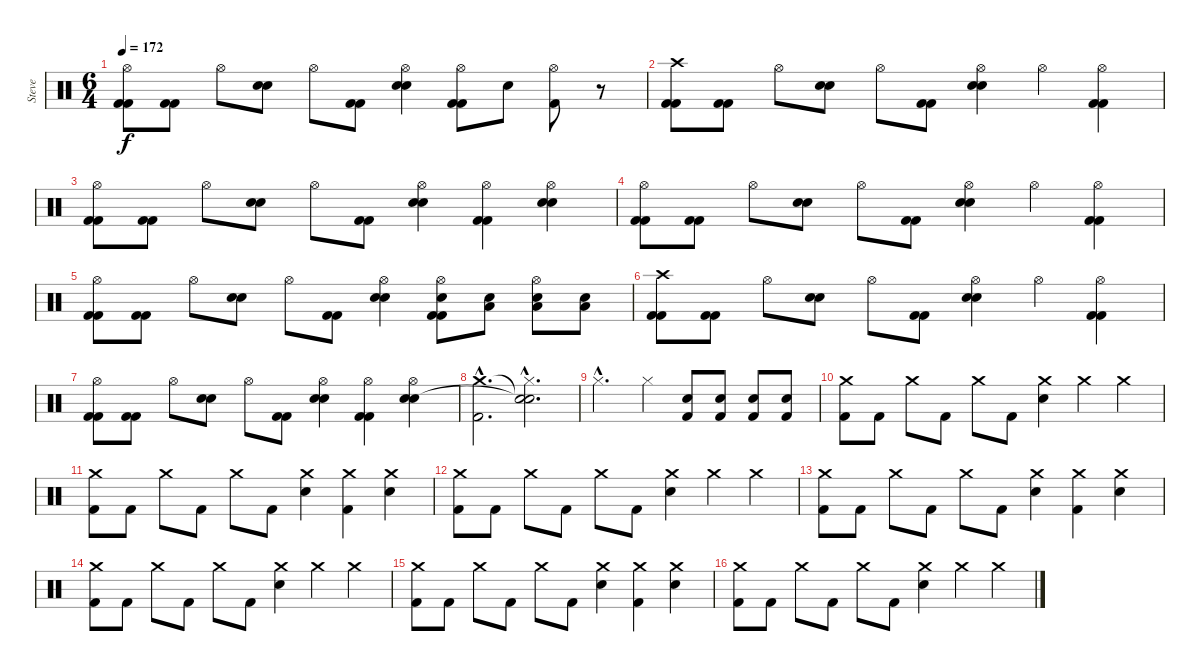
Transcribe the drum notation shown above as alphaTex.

\track ("Steve" "Steve") {instrument percussion}
\staff {score}
\articulation defaults
\ts (6 4)
\tempo 172
\clef neutral
\ks c
("Hi-Hat (open)" "Kick (hit) 2" "Kick (hit) 2").8{dy f} ("Kick (hit) 2" "Kick (hit) 2").8 "Hi-Hat (open)".8 ("Electric Snare (hit)" "Electric Snare (hit)").8 "Hi-Hat (open)".8 ("Kick (hit) 2" "Kick (hit) 2").8 ("Hi-Hat (open)" "Electric Snare (hit)" "Electric Snare (hit)").4 ("Hi-Hat (open)" "Kick (hit) 2" "Kick (hit) 2").8 "Electric Snare (hit)".8 ("Hi-Hat (open)" "Kick (hit) 2").8 r.8 |
("Crash high (hit)" "Kick (hit) 2" "Kick (hit) 2").8 ("Kick (hit) 2" "Kick (hit) 2").8 "Hi-Hat (open)".8 ("Electric Snare (hit)" "Electric Snare (hit)").8 "Hi-Hat (open)".8 ("Kick (hit) 2" "Kick (hit) 2").8 ("Hi-Hat (open)" "Electric Snare (hit)" "Electric Snare (hit)").4 "Hi-Hat (open)".4 ("Hi-Hat (open)" "Kick (hit) 2" "Kick (hit) 2").4 |
("Hi-Hat (open)" "Kick (hit) 2" "Kick (hit) 2").8 ("Kick (hit) 2" "Kick (hit) 2").8 "Hi-Hat (open)".8 ("Electric Snare (hit)" "Electric Snare (hit)").8 "Hi-Hat (open)".8 ("Kick (hit) 2" "Kick (hit) 2").8 ("Hi-Hat (open)" "Electric Snare (hit)" "Electric Snare (hit)").4 ("Hi-Hat (open)" "Kick (hit) 2" "Kick (hit) 2").4 ("Hi-Hat (open)" "Electric Snare (hit)" "Electric Snare (hit)").4 |
("Hi-Hat (open)" "Kick (hit) 2" "Kick (hit) 2").8 ("Kick (hit) 2" "Kick (hit) 2").8 "Hi-Hat (open)".8 ("Electric Snare (hit)" "Electric Snare (hit)").8 "Hi-Hat (open)".8 ("Kick (hit) 2" "Kick (hit) 2").8 ("Hi-Hat (open)" "Electric Snare (hit)" "Electric Snare (hit)").4 "Hi-Hat (open)".4 ("Hi-Hat (open)" "Kick (hit) 2" "Kick (hit) 2").4 |
("Hi-Hat (open)" "Kick (hit) 2" "Kick (hit) 2").8 ("Kick (hit) 2" "Kick (hit) 2").8 "Hi-Hat (open)".8 ("Electric Snare (hit)" "Electric Snare (hit)").8 "Hi-Hat (open)".8 ("Kick (hit) 2" "Kick (hit) 2").8 ("Hi-Hat (open)" "Electric Snare (hit)" "Electric Snare (hit)").4 ("Hi-Hat (open)" "Electric Snare (hit)" "Kick (hit) 2" "Kick (hit) 2").8 ("Electric Snare (hit)" "Low Tom (hit)").8 ("Hi-Hat (open)" "Electric Snare (hit)" "Low Tom (hit)").8 ("Electric Snare (hit)" "Low Tom (hit)").8 |
("Crash high (hit)" "Kick (hit) 2" "Kick (hit) 2").8{volume 16} ("Kick (hit) 2" "Kick (hit) 2").8 "Hi-Hat (open)".8 ("Electric Snare (hit)" "Electric Snare (hit)").8 "Hi-Hat (open)".8 ("Kick (hit) 2" "Kick (hit) 2").8 ("Hi-Hat (open)" "Electric Snare (hit)" "Electric Snare (hit)").4 "Hi-Hat (open)".4 ("Hi-Hat (open)" "Kick (hit) 2" "Kick (hit) 2").4 |
("Hi-Hat (open)" "Kick (hit) 2" "Kick (hit) 2").8 ("Kick (hit) 2" "Kick (hit) 2").8 "Hi-Hat (open)".8 ("Electric Snare (hit)" "Electric Snare (hit)").8 "Hi-Hat (open)".8 ("Kick (hit) 2" "Kick (hit) 2").8 ("Hi-Hat (open)" "Electric Snare (hit)" "Electric Snare (hit)").4 ("Hi-Hat (open)" "Kick (hit) 2" "Kick (hit) 2").4 ("Hi-Hat (open)" "Electric Snare (hit)" "Electric Snare (hit)").4 |
("Crash medium (hit)"{hac} "Kick (hit) 2"{hac}).2{d} ("Snare (hit)"{hac t} "Hi-Hat (closed)"{hac} "Snare (hit)"{hac t}).2{d} |
"Hi-Hat (closed)"{hac}.2{d} "Hi-Hat (closed)".4 ("Electric Snare (hit)" "Kick (hit) 2").8 ("Electric Snare (hit)" "Kick (hit) 2").8 ("Electric Snare (hit)" "Kick (hit) 2").8 ("Electric Snare (hit)" "Kick (hit) 2").8 |
("Crash medium (hit)" "Kick (hit) 2").8 "Kick (hit) 2".8 "Crash medium (hit)".8 "Kick (hit) 2".8 "Crash medium (hit)".8 "Kick (hit) 2".8 ("Crash medium (hit)" "Electric Snare (hit)").4 "Crash medium (hit)".4 "Crash medium (hit)".4 |
("Crash medium (hit)" "Kick (hit) 2").8 "Kick (hit) 2".8 "Crash medium (hit)".8 "Kick (hit) 2".8 "Crash medium (hit)".8 "Kick (hit) 2".8 ("Crash medium (hit)" "Electric Snare (hit)").4 ("Crash medium (hit)" "Kick (hit) 2").4 ("Crash medium (hit)" "Electric Snare (hit)").4 |
("Crash medium (hit)" "Kick (hit) 2").8 "Kick (hit) 2".8 "Crash medium (hit)".8 "Kick (hit) 2".8 "Crash medium (hit)".8 "Kick (hit) 2".8 ("Crash medium (hit)" "Electric Snare (hit)").4 "Crash medium (hit)".4 "Crash medium (hit)".4 |
("Crash medium (hit)" "Kick (hit) 2").8 "Kick (hit) 2".8 "Crash medium (hit)".8 "Kick (hit) 2".8 "Crash medium (hit)".8 "Kick (hit) 2".8 ("Crash medium (hit)" "Electric Snare (hit)").4 ("Crash medium (hit)" "Kick (hit) 2").4 ("Crash medium (hit)" "Electric Snare (hit)").4 |
("Crash medium (hit)" "Kick (hit) 2").8 "Kick (hit) 2".8 "Crash medium (hit)".8 "Kick (hit) 2".8 "Crash medium (hit)".8 "Kick (hit) 2".8 ("Crash medium (hit)" "Electric Snare (hit)").4 "Crash medium (hit)".4 "Crash medium (hit)".4 |
("Crash medium (hit)" "Kick (hit) 2").8 "Kick (hit) 2".8 "Crash medium (hit)".8 "Kick (hit) 2".8 "Crash medium (hit)".8 "Kick (hit) 2".8 ("Crash medium (hit)" "Electric Snare (hit)").4 ("Crash medium (hit)" "Kick (hit) 2").4 ("Crash medium (hit)" "Electric Snare (hit)").4 |
("Crash medium (hit)" "Kick (hit) 2").8 "Kick (hit) 2".8 "Crash medium (hit)".8 "Kick (hit) 2".8 "Crash medium (hit)".8 "Kick (hit) 2".8 ("Crash medium (hit)" "Electric Snare (hit)").4 "Crash medium (hit)".4 "Crash medium (hit)".4
